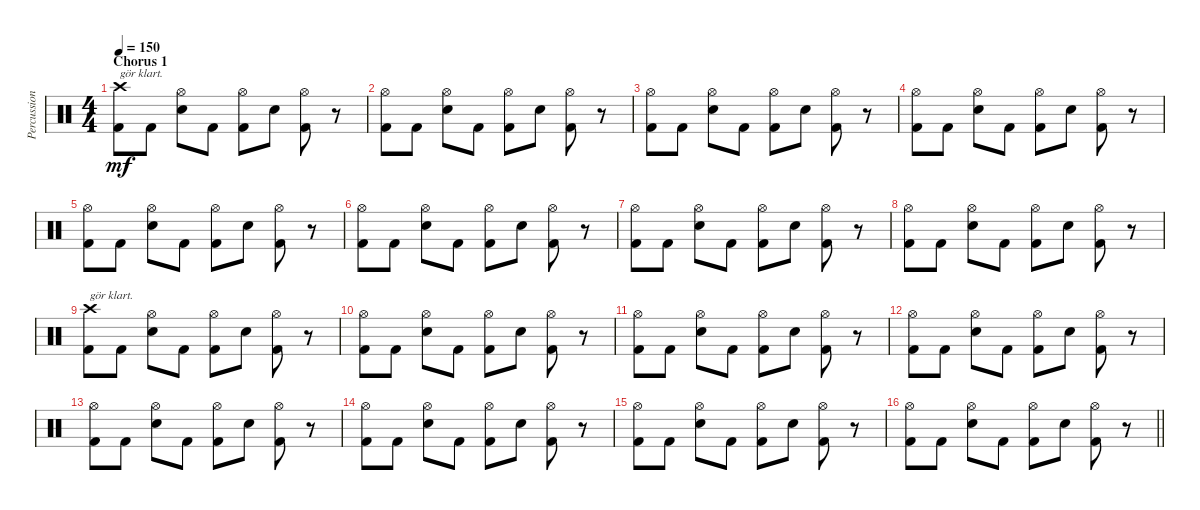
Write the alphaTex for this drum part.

\track ("Percussion" "Percussion") {instrument percussion}
\staff {score}
\articulation defaults
\ts (4 4)
\section ("" "Chorus 1")
\tempo 150
\clef neutral
\ks c
("Crash high (hit)" "Kick (hit) 2").8{txt "gör klart." dy mf} "Kick (hit) 2".8 ("Hi-Hat (open)" "Electric Snare (hit)").8 "Kick (hit) 2".8 ("Hi-Hat (open)" "Kick (hit) 2").8 "Electric Snare (hit)".8 ("Hi-Hat (open)" "Kick (hit) 2").8 r.8 |
("Hi-Hat (open)" "Kick (hit) 2").8 "Kick (hit) 2".8 ("Hi-Hat (open)" "Electric Snare (hit)").8 "Kick (hit) 2".8 ("Hi-Hat (open)" "Kick (hit) 2").8 "Electric Snare (hit)".8 ("Hi-Hat (open)" "Kick (hit) 2").8 r.8 |
("Hi-Hat (open)" "Kick (hit) 2").8 "Kick (hit) 2".8 ("Hi-Hat (open)" "Electric Snare (hit)").8 "Kick (hit) 2".8 ("Hi-Hat (open)" "Kick (hit) 2").8 "Electric Snare (hit)".8 ("Hi-Hat (open)" "Kick (hit) 2").8 r.8 |
("Hi-Hat (open)" "Kick (hit) 2").8 "Kick (hit) 2".8 ("Hi-Hat (open)" "Electric Snare (hit)").8 "Kick (hit) 2".8 ("Hi-Hat (open)" "Kick (hit) 2").8 "Electric Snare (hit)".8 ("Hi-Hat (open)" "Kick (hit) 2").8 r.8 |
("Hi-Hat (open)" "Kick (hit) 2").8 "Kick (hit) 2".8 ("Hi-Hat (open)" "Electric Snare (hit)").8 "Kick (hit) 2".8 ("Hi-Hat (open)" "Kick (hit) 2").8 "Electric Snare (hit)".8 ("Hi-Hat (open)" "Kick (hit) 2").8 r.8 |
("Hi-Hat (open)" "Kick (hit) 2").8 "Kick (hit) 2".8 ("Hi-Hat (open)" "Electric Snare (hit)").8 "Kick (hit) 2".8 ("Hi-Hat (open)" "Kick (hit) 2").8 "Electric Snare (hit)".8 ("Hi-Hat (open)" "Kick (hit) 2").8 r.8 |
("Hi-Hat (open)" "Kick (hit) 2").8 "Kick (hit) 2".8 ("Hi-Hat (open)" "Electric Snare (hit)").8 "Kick (hit) 2".8 ("Hi-Hat (open)" "Kick (hit) 2").8 "Electric Snare (hit)".8 ("Hi-Hat (open)" "Kick (hit) 2").8 r.8 |
("Hi-Hat (open)" "Kick (hit) 2").8 "Kick (hit) 2".8 ("Hi-Hat (open)" "Electric Snare (hit)").8 "Kick (hit) 2".8 ("Hi-Hat (open)" "Kick (hit) 2").8 "Electric Snare (hit)".8 ("Hi-Hat (open)" "Kick (hit) 2").8 r.8 |
("Crash high (hit)" "Kick (hit) 2").8{txt "gör klart."} "Kick (hit) 2".8 ("Hi-Hat (open)" "Electric Snare (hit)").8 "Kick (hit) 2".8 ("Hi-Hat (open)" "Kick (hit) 2").8 "Electric Snare (hit)".8 ("Hi-Hat (open)" "Kick (hit) 2").8 r.8 |
("Hi-Hat (open)" "Kick (hit) 2").8 "Kick (hit) 2".8 ("Hi-Hat (open)" "Electric Snare (hit)").8 "Kick (hit) 2".8 ("Hi-Hat (open)" "Kick (hit) 2").8 "Electric Snare (hit)".8 ("Hi-Hat (open)" "Kick (hit) 2").8 r.8 |
("Hi-Hat (open)" "Kick (hit) 2").8 "Kick (hit) 2".8 ("Hi-Hat (open)" "Electric Snare (hit)").8 "Kick (hit) 2".8 ("Hi-Hat (open)" "Kick (hit) 2").8 "Electric Snare (hit)".8 ("Hi-Hat (open)" "Kick (hit) 2").8 r.8 |
("Hi-Hat (open)" "Kick (hit) 2").8 "Kick (hit) 2".8 ("Hi-Hat (open)" "Electric Snare (hit)").8 "Kick (hit) 2".8 ("Hi-Hat (open)" "Kick (hit) 2").8 "Electric Snare (hit)".8 ("Hi-Hat (open)" "Kick (hit) 2").8 r.8 |
("Hi-Hat (open)" "Kick (hit) 2").8 "Kick (hit) 2".8 ("Hi-Hat (open)" "Electric Snare (hit)").8 "Kick (hit) 2".8 ("Hi-Hat (open)" "Kick (hit) 2").8 "Electric Snare (hit)".8 ("Hi-Hat (open)" "Kick (hit) 2").8 r.8 |
("Hi-Hat (open)" "Kick (hit) 2").8 "Kick (hit) 2".8 ("Hi-Hat (open)" "Electric Snare (hit)").8 "Kick (hit) 2".8 ("Hi-Hat (open)" "Kick (hit) 2").8 "Electric Snare (hit)".8 ("Hi-Hat (open)" "Kick (hit) 2").8 r.8 |
("Hi-Hat (open)" "Kick (hit) 2").8 "Kick (hit) 2".8 ("Hi-Hat (open)" "Electric Snare (hit)").8 "Kick (hit) 2".8 ("Hi-Hat (open)" "Kick (hit) 2").8 "Electric Snare (hit)".8 ("Hi-Hat (open)" "Kick (hit) 2").8 r.8 |
\barLineRight lightlight
("Hi-Hat (open)" "Kick (hit) 2").8 "Kick (hit) 2".8 ("Hi-Hat (open)" "Electric Snare (hit)").8 "Kick (hit) 2".8 ("Hi-Hat (open)" "Kick (hit) 2").8 "Electric Snare (hit)".8 ("Hi-Hat (open)" "Kick (hit) 2").8 r.8
